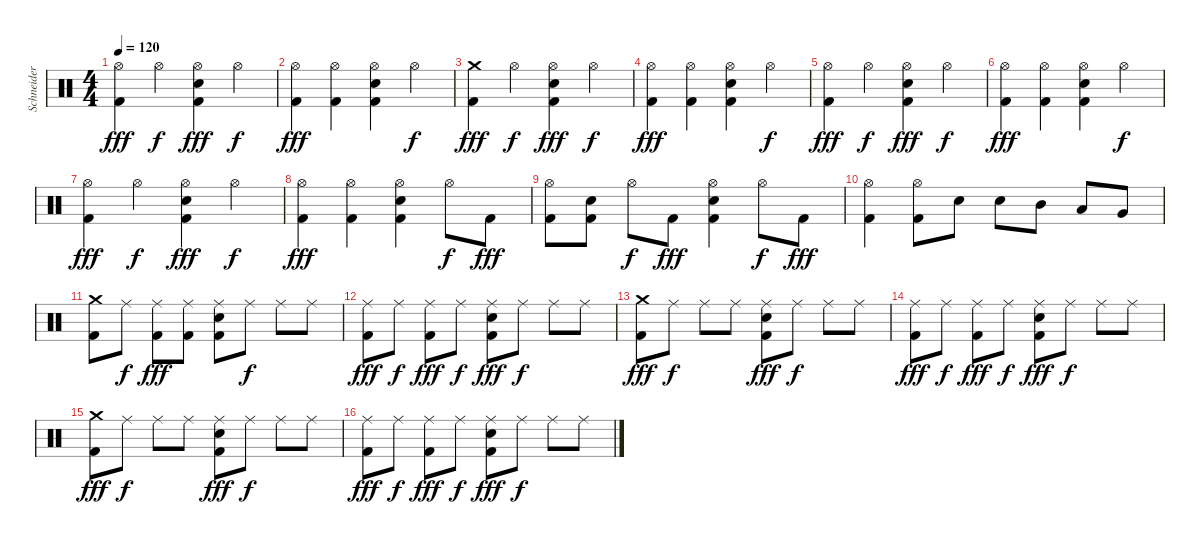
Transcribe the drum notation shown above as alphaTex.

\track ("Schneider" "Schneider") {instrument percussion}
\staff {score}
\articulation defaults
\ts (4 4)
\tempo 120
\clef neutral
\ks c
("Hi-Hat (open)" "Kick (hit) 2").4{dy fff} "Hi-Hat (open)".4{dy f} ("Hi-Hat (open)" "Kick (hit) 2" "Snare (hit) 2").4{dy fff} "Hi-Hat (open)".4{dy f} |
("Hi-Hat (open)" "Kick (hit) 2").4{dy fff} ("Hi-Hat (open)" "Kick (hit) 2").4 ("Hi-Hat (open)" "Kick (hit) 2" "Snare (hit) 2").4 "Hi-Hat (open)".4{dy f} |
("Crash medium (hit)" "Kick (hit) 2").4{dy fff} "Hi-Hat (open)".4{dy f} ("Hi-Hat (open)" "Kick (hit) 2" "Snare (hit) 2").4{dy fff} "Hi-Hat (open)".4{dy f} |
("Hi-Hat (open)" "Kick (hit) 2").4{dy fff} ("Hi-Hat (open)" "Kick (hit) 2").4 ("Hi-Hat (open)" "Kick (hit) 2" "Snare (hit) 2").4 "Hi-Hat (open)".4{dy f} |
("Hi-Hat (open)" "Kick (hit) 2").4{dy fff} "Hi-Hat (open)".4{dy f} ("Hi-Hat (open)" "Kick (hit) 2" "Snare (hit) 2").4{dy fff} "Hi-Hat (open)".4{dy f} |
("Hi-Hat (open)" "Kick (hit) 2").4{dy fff} ("Hi-Hat (open)" "Kick (hit) 2").4 ("Hi-Hat (open)" "Kick (hit) 2" "Snare (hit) 2").4 "Hi-Hat (open)".4{dy f} |
("Hi-Hat (open)" "Kick (hit) 2").4{dy fff} "Hi-Hat (open)".4{dy f} ("Hi-Hat (open)" "Kick (hit) 2" "Snare (hit) 2").4{dy fff} "Hi-Hat (open)".4{dy f} |
("Hi-Hat (open)" "Kick (hit) 2").4{dy fff} ("Hi-Hat (open)" "Kick (hit) 2").4 ("Hi-Hat (open)" "Kick (hit) 2" "Snare (hit) 2").4 "Hi-Hat (open)".8{dy f} "Kick (hit) 2".8{dy fff} |
("Hi-Hat (open)" "Kick (hit) 2").8 ("Kick (hit) 2" "Snare (hit) 2").8 "Hi-Hat (open)".8{dy f} "Kick (hit) 2".8{dy fff} ("Hi-Hat (open)" "Kick (hit) 2" "Snare (hit) 2").4 "Hi-Hat (open)".8{dy f} "Kick (hit) 2".8{dy fff} |
("Hi-Hat (open)" "Kick (hit) 2").4 ("Hi-Hat (open)" "Kick (hit) 2").8 "Snare (hit) 2".8 "Snare (hit) 2".8 "Mid Tom (hit)".8 "Low Tom (hit)".8 "Very Low Tom (hit)".8 |
("Crash medium (hit)" "Kick (hit) 2").8 "Ride (middle)".8{dy f} ("Ride (middle)" "Kick (hit) 2").8{dy fff} ("Ride (middle)" "Kick (hit) 2").8 ("Ride (middle)" "Kick (hit) 2" "Snare (hit) 2").8 "Ride (middle)".8{dy f} "Ride (middle)".8 "Ride (middle)".8 |
("Ride (middle)" "Kick (hit) 2").8{dy fff} "Ride (middle)".8{dy f} ("Ride (middle)" "Kick (hit) 2").8{dy fff} "Ride (middle)".8{dy f} ("Ride (middle)" "Kick (hit) 2" "Snare (hit) 2").8{dy fff} "Ride (middle)".8{dy f} "Ride (middle)".8 "Ride (middle)".8 |
("Crash medium (hit)" "Kick (hit) 2").8{dy fff} "Ride (middle)".8{dy f} "Ride (middle)".8 "Ride (middle)".8 ("Ride (middle)" "Kick (hit) 2" "Snare (hit) 2").8{dy fff} "Ride (middle)".8{dy f} "Ride (middle)".8 "Ride (middle)".8 |
("Ride (middle)" "Kick (hit) 2").8{dy fff} "Ride (middle)".8{dy f} ("Ride (middle)" "Kick (hit) 2").8{dy fff} "Ride (middle)".8{dy f} ("Ride (middle)" "Kick (hit) 2" "Snare (hit) 2").8{dy fff} "Ride (middle)".8{dy f} "Ride (middle)".8 "Ride (middle)".8 |
("Crash medium (hit)" "Kick (hit) 2").8{dy fff} "Ride (middle)".8{dy f} "Ride (middle)".8 "Ride (middle)".8 ("Ride (middle)" "Kick (hit) 2" "Snare (hit) 2").8{dy fff} "Ride (middle)".8{dy f} "Ride (middle)".8 "Ride (middle)".8 |
("Ride (middle)" "Kick (hit) 2").8{dy fff} "Ride (middle)".8{dy f} ("Ride (middle)" "Kick (hit) 2").8{dy fff} "Ride (middle)".8{dy f} ("Ride (middle)" "Kick (hit) 2" "Snare (hit) 2").8{dy fff} "Ride (middle)".8{dy f} "Ride (middle)".8 "Ride (middle)".8
